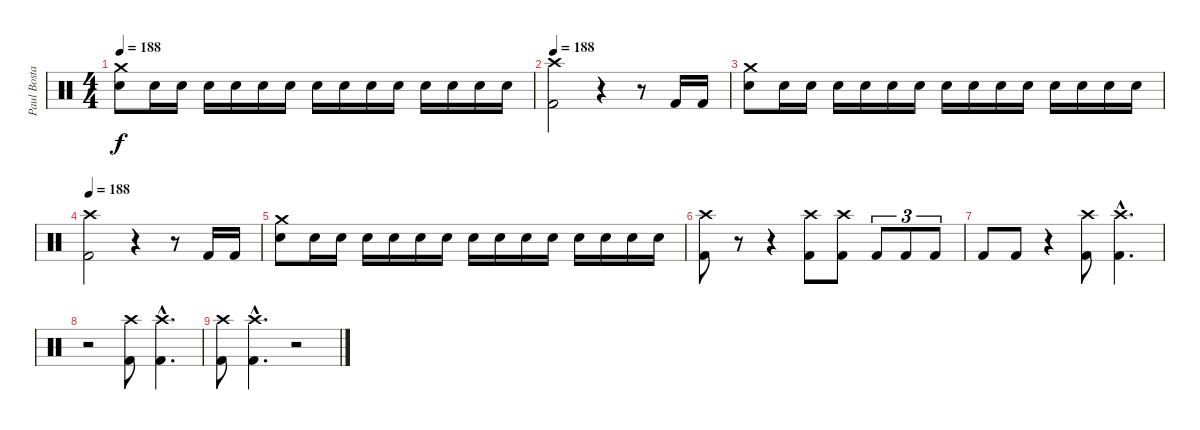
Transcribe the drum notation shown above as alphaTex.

\track ("Paul Bostaph" "Paul Bosta") {instrument percussion}
\staff {score}
\articulation defaults
\ts (4 4)
\tempo 188
\clef neutral
\ks c
("Electric Snare (hit)" "Crash medium (hit)").8{dy f} "Electric Snare (hit)".16 "Electric Snare (hit)".16 "Electric Snare (hit)".16 "Electric Snare (hit)".16 "Electric Snare (hit)".16 "Electric Snare (hit)".16 "Electric Snare (hit)".16 "Electric Snare (hit)".16 "Electric Snare (hit)".16 "Electric Snare (hit)".16 "Electric Snare (hit)".16 "Electric Snare (hit)".16 "Electric Snare (hit)".16 "Electric Snare (hit)".16 |
\tempo 188
("Crash high (hit)" "Kick (hit) 2").2 r.4 r.8 "Kick (hit) 2".16 "Kick (hit) 2".16 |
("Electric Snare (hit)" "Crash medium (hit)").8 "Electric Snare (hit)".16 "Electric Snare (hit)".16 "Electric Snare (hit)".16 "Electric Snare (hit)".16 "Electric Snare (hit)".16 "Electric Snare (hit)".16 "Electric Snare (hit)".16 "Electric Snare (hit)".16 "Electric Snare (hit)".16 "Electric Snare (hit)".16 "Electric Snare (hit)".16 "Electric Snare (hit)".16 "Electric Snare (hit)".16 "Electric Snare (hit)".16 |
\tempo 188
("Crash high (hit)" "Kick (hit) 2").2 r.4 r.8 "Kick (hit) 2".16 "Kick (hit) 2".16 |
("Electric Snare (hit)" "Crash medium (hit)").8 "Electric Snare (hit)".16 "Electric Snare (hit)".16 "Electric Snare (hit)".16 "Electric Snare (hit)".16 "Electric Snare (hit)".16 "Electric Snare (hit)".16 "Electric Snare (hit)".16 "Electric Snare (hit)".16 "Electric Snare (hit)".16 "Electric Snare (hit)".16 "Electric Snare (hit)".16 "Electric Snare (hit)".16 "Electric Snare (hit)".16 "Electric Snare (hit)".16 |
("Crash high (hit)" "Kick (hit) 2").8 r.8 r.4 ("Crash high (hit)" "Kick (hit) 2").8 ("Crash high (hit)" "Kick (hit) 2").8 "Kick (hit) 2".8{tu (3 2)} "Kick (hit) 2".8{tu (3 2)} "Kick (hit) 2".8{tu (3 2)} |
"Kick (hit) 2".8 "Kick (hit) 2".8 r.4 ("Crash high (hit)" "Kick (hit) 2").8 ("Crash high (hit)"{hac} "Kick (hit) 2"{hac}).4{d} |
r.2 ("Crash high (hit)" "Kick (hit) 2").8 ("Crash high (hit)"{hac} "Kick (hit) 2"{hac}).4{d} |
("Crash high (hit)" "Kick (hit) 2").8 ("Crash high (hit)"{hac} "Kick (hit) 2"{hac}).4{d} r.2
